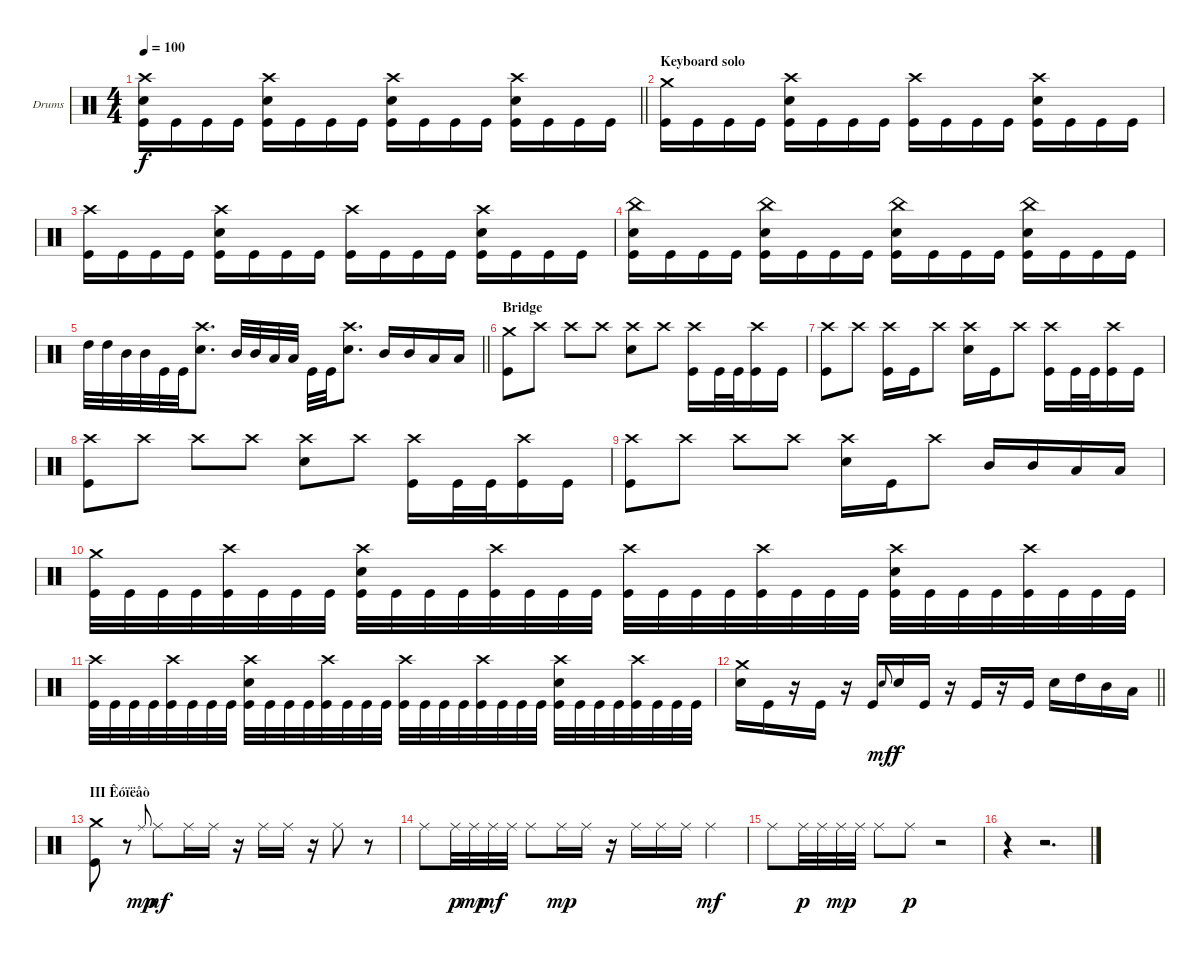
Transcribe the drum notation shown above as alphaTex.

\bracketExtendMode groupsimilarinstruments
\firstSystemTrackNameOrientation horizontal
\otherSystemsTrackNameOrientation horizontal
\track ("Drumkit" "Drums") {instrument percussion}
\staff {score}
\articulation defaults
\ts (4 4)
\tempo 100
\clef neutral
\barLineRight lightlight
\ks c
("Crash high (hit)" "Snare (hit) 2" "Kick (hit)").16{dy f} "Kick (hit)".16 "Kick (hit)".16 "Kick (hit)".16 ("Crash high (hit)" "Snare (hit) 2" "Kick (hit)").16 "Kick (hit)".16 "Kick (hit)".16 "Kick (hit)".16 ("Crash high (hit)" "Snare (hit) 2" "Kick (hit)").16 "Kick (hit)".16 "Kick (hit)".16 "Kick (hit)".16 ("Crash high (hit)" "Snare (hit) 2" "Kick (hit)").16 "Kick (hit)".16 "Kick (hit)".16 "Kick (hit)".16 |
\section ("" "Keyboard solo")
("Crash medium (hit)" "Kick (hit)").16 "Kick (hit)".16 "Kick (hit)".16 "Kick (hit)".16 ("Crash high (hit)" "Snare (hit) 2" "Kick (hit)").16 "Kick (hit)".16 "Kick (hit)".16 "Kick (hit)".16 ("Crash high (hit)" "Kick (hit)").16 "Kick (hit)".16 "Kick (hit)".16 "Kick (hit)".16 ("Crash high (hit)" "Snare (hit) 2" "Kick (hit)").16 "Kick (hit)".16 "Kick (hit)".16 "Kick (hit)".16 |
("Crash high (hit)" "Kick (hit)").16 "Kick (hit)".16 "Kick (hit)".16 "Kick (hit)".16 ("Crash high (hit)" "Snare (hit) 2" "Kick (hit)").16 "Kick (hit)".16 "Kick (hit)".16 "Kick (hit)".16 ("Crash high (hit)" "Kick (hit)").16 "Kick (hit)".16 "Kick (hit)".16 "Kick (hit)".16 ("Crash high (hit)" "Snare (hit) 2" "Kick (hit)").16 "Kick (hit)".16 "Kick (hit)".16 "Kick (hit)".16 |
("China (hit)" "Snare (hit) 2" "Kick (hit)").16 "Kick (hit)".16 "Kick (hit)".16 "Kick (hit)".16 ("China (hit)" "Snare (hit) 2" "Kick (hit)").16 "Kick (hit)".16 "Kick (hit)".16 "Kick (hit)".16 ("China (hit)" "Snare (hit) 2" "Kick (hit)").16 "Kick (hit)".16 "Kick (hit)".16 "Kick (hit)".16 ("China (hit)" "Snare (hit) 2" "Kick (hit)").16 "Kick (hit)".16 "Kick (hit)".16 "Kick (hit)".16 |
\barLineRight lightlight "High Tom (hit)".32 "High Tom (hit)".32 "Mid Tom (hit)".32 "Mid Tom (hit)".32 "Kick (hit)".32 "Kick (hit)".32
("Crash high (hit)" "Snare (hit) 2").8{d} "Mid Tom (hit)".32 "Mid Tom (hit)".32 "Low Tom (hit)".32 "Low Tom (hit)".32 "Kick (hit)".32 "Kick (hit)".32 ("Crash high (hit)" "Snare (hit) 2").8{d} "Mid Tom (hit)".16 "Mid Tom (hit)".16 "Low Tom (hit)".16 "Low Tom (hit)".16 |
\section ("" "Bridge")
("Crash medium (hit)" "Kick (hit)").8 "Crash high (hit)".8 "Crash high (hit)".8 "Crash high (hit)".8 ("Crash high (hit)" "Snare (hit) 2").8 "Crash high (hit)".8 ("Crash high (hit)" "Kick (hit)").16 "Kick (hit)".32 "Kick (hit)".32 ("Crash high (hit)" "Kick (hit)").16 "Kick (hit)".16 |
("Crash high (hit)" "Kick (hit)").8 "Crash high (hit)".8 ("Crash high (hit)" "Kick (hit)").16 "Kick (hit)".16 "Crash high (hit)".8 ("Crash high (hit)" "Snare (hit) 2").16 "Kick (hit)".16 "Crash high (hit)".8 ("Crash high (hit)" "Kick (hit)").16 "Kick (hit)".32 "Kick (hit)".32 ("Crash high (hit)" "Kick (hit)").16 "Kick (hit)".16 |
("Crash high (hit)" "Kick (hit)").8 "Crash high (hit)".8 "Crash high (hit)".8 "Crash high (hit)".8 ("Crash high (hit)" "Snare (hit) 2").8 "Crash high (hit)".8 ("Crash high (hit)" "Kick (hit)").16 "Kick (hit)".32 "Kick (hit)".32 ("Crash high (hit)" "Kick (hit)").16 "Kick (hit)".16 |
("Crash high (hit)" "Kick (hit)").8 "Crash high (hit)".8 "Crash high (hit)".8 "Crash high (hit)".8 ("Crash high (hit)" "Snare (hit) 2").16 "Kick (hit)".16 "Crash high (hit)".8 "Mid Tom (hit)".16 "Mid Tom (hit)".16 "Low Tom (hit)".16 "Low Tom (hit)".16 |
("Crash medium (hit)" "Kick (hit)").32 "Kick (hit)".32 "Kick (hit)".32 "Kick (hit)".32 ("Crash high (hit)" "Kick (hit)").32 "Kick (hit)".32 "Kick (hit)".32 "Kick (hit)".32 ("Crash high (hit)" "Snare (hit) 2" "Kick (hit)").32 "Kick (hit)".32 "Kick (hit)".32 "Kick (hit)".32 ("Crash high (hit)" "Kick (hit)").32 "Kick (hit)".32 "Kick (hit)".32 "Kick (hit)".32 ("Crash high (hit)" "Kick (hit)").32 "Kick (hit)".32 "Kick (hit)".32 "Kick (hit)".32 ("Crash high (hit)" "Kick (hit)").32 "Kick (hit)".32 "Kick (hit)".32 "Kick (hit)".32 ("Crash high (hit)" "Snare (hit) 2" "Kick (hit)").32 "Kick (hit)".32 "Kick (hit)".32 "Kick (hit)".32 ("Crash high (hit)" "Kick (hit)").32 "Kick (hit)".32 "Kick (hit)".32 "Kick (hit)".32 |
("Crash high (hit)" "Kick (hit)").32 "Kick (hit)".32 "Kick (hit)".32 "Kick (hit)".32 ("Crash high (hit)" "Kick (hit)").32 "Kick (hit)".32 "Kick (hit)".32 "Kick (hit)".32 ("Crash high (hit)" "Snare (hit) 2" "Kick (hit)").32 "Kick (hit)".32 "Kick (hit)".32 "Kick (hit)".32 ("Crash high (hit)" "Kick (hit)").32 "Kick (hit)".32 "Kick (hit)".32 "Kick (hit)".32 ("Crash high (hit)" "Kick (hit)").32 "Kick (hit)".32 "Kick (hit)".32 "Kick (hit)".32 ("Crash high (hit)" "Kick (hit)").32 "Kick (hit)".32 "Kick (hit)".32 "Kick (hit)".32 ("Crash high (hit)" "Snare (hit) 2" "Kick (hit)").32 "Kick (hit)".32 "Kick (hit)".32 "Kick (hit)".32 ("Crash high (hit)" "Kick (hit)").32 "Kick (hit)".32 "Kick (hit)".32 "Kick (hit)".32 |
\barLineRight lightlight
("Crash medium (hit)" "Snare (hit) 2").16 "Kick (hit)".16 r.16 "Kick (hit)".16 r.16 "Kick (hit)".16 "Snare (hit) 2".8{gr onbeat dy mf} "Snare (hit) 2".16{dy f} "Kick (hit)".16 r.16 "Kick (hit)".16 r.16 "Kick (hit)".16 "Snare (hit) 2".16 "High Tom (hit)".16 "Mid Tom (hit)".16 "Low Tom (hit)".16 |
\section ("" "III Êóïëåò")
("Crash medium (hit)" "Kick (hit)").8 r.8 "Ride (middle)".8{gr onbeat dy mp} "Ride (middle)".8{dy mf} "Ride (middle)".16 "Ride (middle)".16 r.16 "Ride (middle)".16 "Ride (middle)".16 r.16 "Ride (middle)".8 r.8 |
"Ride (middle)".8 "Ride (middle)".32{dy p} "Ride (middle)".32{dy mp} "Ride (middle)".32{dy mf} "Ride (middle)".32 "Ride (middle)".8 "Ride (middle)".16{dy mp} "Ride (middle)".16 r.16 "Ride (middle)".16 "Ride (middle)".16 "Ride (middle)".16 "Ride (middle)".4{dy mf} |
"Ride (middle)".8 "Ride (middle)".32{dy p} "Ride (middle)".32 "Ride (middle)".32{dy mp} "Ride (middle)".32 "Ride (middle)".8 "Ride (middle)".8{dy p} r.2 |
r.4 r.2{d}
